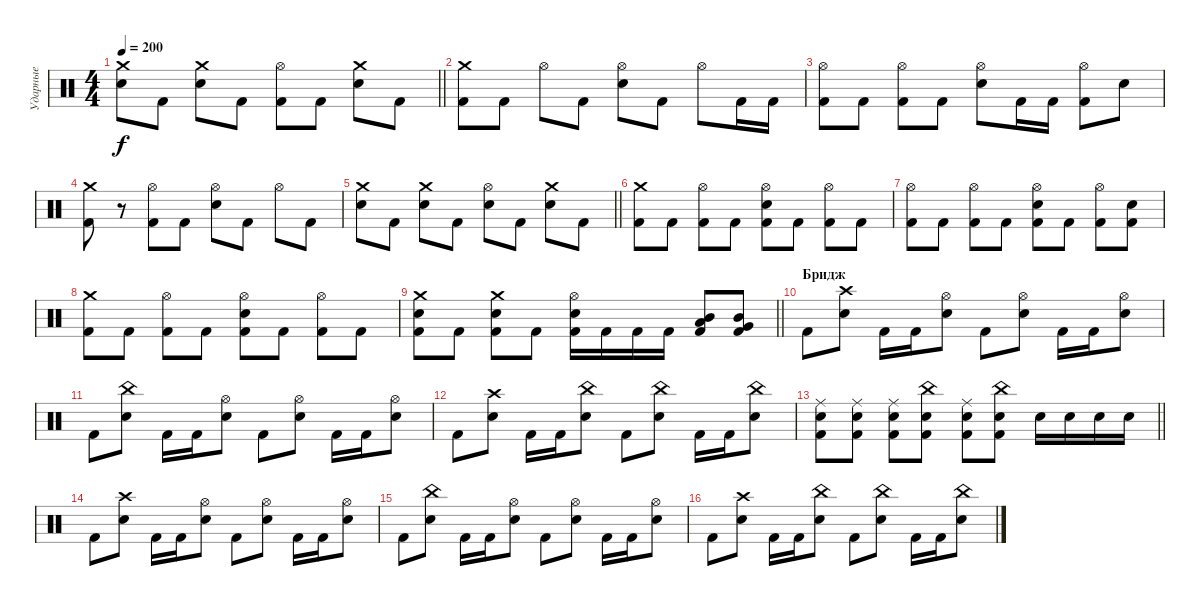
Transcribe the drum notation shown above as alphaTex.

\track ("Ударные" "Ударные") {instrument percussion}
\staff {score}
\articulation defaults
\ts (4 4)
\tempo 200
\clef neutral
\barLineRight lightlight
\ks c
("Crash medium (hit)" "Electric Snare (hit)").8{dy f} "Kick (hit) 2".8 ("Crash medium (hit)" "Electric Snare (hit)").8 "Kick (hit) 2".8 ("Hi-Hat (open)" "Kick (hit) 2").8 "Kick (hit) 2".8 ("Crash medium (hit)" "Electric Snare (hit)").8 "Kick (hit) 2".8 |
("Crash medium (hit)" "Kick (hit) 2").8 "Kick (hit) 2".8 "Hi-Hat (open)".8 "Kick (hit) 2".8 ("Hi-Hat (open)" "Electric Snare (hit)").8 "Kick (hit) 2".8 "Hi-Hat (open)".8 "Kick (hit) 2".16 "Kick (hit) 2".16 |
("Hi-Hat (open)" "Kick (hit) 2").8 "Kick (hit) 2".8 ("Hi-Hat (open)" "Kick (hit) 2").8 "Kick (hit) 2".8 ("Hi-Hat (open)" "Electric Snare (hit)").8 "Kick (hit) 2".16 "Kick (hit) 2".16 ("Hi-Hat (open)" "Kick (hit) 2").8 "Electric Snare (hit)".8 |
("Crash medium (hit)" "Kick (hit) 2").8 r.8 ("Hi-Hat (open)" "Kick (hit) 2").8 "Kick (hit) 2".8 ("Hi-Hat (open)" "Electric Snare (hit)").8 "Kick (hit) 2".8 "Hi-Hat (open)".8 "Kick (hit) 2".8 |
\barLineRight lightlight
("Crash medium (hit)" "Electric Snare (hit)").8 "Kick (hit) 2".8 ("Crash medium (hit)" "Electric Snare (hit)").8 "Kick (hit) 2".8 ("Hi-Hat (open)" "Electric Snare (hit)").8 "Kick (hit) 2".8 ("Crash medium (hit)" "Electric Snare (hit)").8 "Kick (hit) 2".8 |
("Crash medium (hit)" "Kick (hit) 2").8 "Kick (hit) 2".8 ("Hi-Hat (open)" "Kick (hit) 2").8 "Kick (hit) 2".8 ("Hi-Hat (open)" "Electric Snare (hit)" "Kick (hit) 2").8 "Kick (hit) 2".8 ("Hi-Hat (open)" "Kick (hit) 2").8 "Kick (hit) 2".8 |
("Hi-Hat (open)" "Kick (hit) 2").8 "Kick (hit) 2".8 ("Hi-Hat (open)" "Kick (hit) 2").8 "Kick (hit) 2".8 ("Hi-Hat (open)" "Electric Snare (hit)" "Kick (hit) 2").8 "Kick (hit) 2".8 ("Hi-Hat (open)" "Kick (hit) 2").8 ("Electric Snare (hit)" "Kick (hit) 2").8 |
("Crash medium (hit)" "Kick (hit) 2").8 "Kick (hit) 2".8 ("Hi-Hat (open)" "Kick (hit) 2").8 "Kick (hit) 2".8 ("Hi-Hat (open)" "Electric Snare (hit)" "Kick (hit) 2").8 "Kick (hit) 2".8 ("Hi-Hat (open)" "Kick (hit) 2").8 "Kick (hit) 2".8 |
\barLineRight lightlight
("Crash medium (hit)" "Electric Snare (hit)" "Kick (hit) 2").8 "Kick (hit) 2".8 ("Crash medium (hit)" "Electric Snare (hit)" "Kick (hit) 2").8 "Kick (hit) 2".8 ("Hi-Hat (open)" "Electric Snare (hit)" "Kick (hit) 2").16 "Kick (hit) 2".16 "Kick (hit) 2".16 "Kick (hit) 2".16 ("Low Tom (hit)" "Mid Tom (hit)" "Kick (hit) 2").8 ("Mid Tom (hit)" "Very Low Tom (hit)" "Kick (hit) 2").8 |
\section ("" "Бридж")
"Kick (hit) 2".8 ("Electric Snare (hit)" "Crash high (hit)").8 "Kick (hit) 2".16 "Kick (hit) 2".16 ("Electric Snare (hit)" "Hi-Hat (open)").8 "Kick (hit) 2".8 ("Electric Snare (hit)" "Hi-Hat (open)").8 "Kick (hit) 2".16 "Kick (hit) 2".16 ("Electric Snare (hit)" "Hi-Hat (open)").8 |
"Kick (hit) 2".8 ("Electric Snare (hit)" "China (hit)").8 "Kick (hit) 2".16 "Kick (hit) 2".16 ("Electric Snare (hit)" "Hi-Hat (open)").8 "Kick (hit) 2".8 ("Electric Snare (hit)" "Hi-Hat (open)").8 "Kick (hit) 2".16 "Kick (hit) 2".16 ("Electric Snare (hit)" "Hi-Hat (open)").8 |
"Kick (hit) 2".8 ("Electric Snare (hit)" "Crash high (hit)").8 "Kick (hit) 2".16 "Kick (hit) 2".16 ("Electric Snare (hit)" "China (hit)").8 "Kick (hit) 2".8 ("Electric Snare (hit)" "China (hit)").8 "Kick (hit) 2".16 "Kick (hit) 2".16 ("Electric Snare (hit)" "China (hit)").8 |
\barLineRight lightlight
("Kick (hit) 2" "Electric Snare (hit)" "Ride (middle)").8 ("Kick (hit) 2" "Electric Snare (hit)" "Ride (middle)").8 ("Kick (hit) 2" "Electric Snare (hit)" "Ride (middle)").8 ("Kick (hit) 2" "Electric Snare (hit)" "China (hit)").8 ("Kick (hit) 2" "Electric Snare (hit)" "Ride (middle)").8 ("Kick (hit) 2" "Electric Snare (hit)" "China (hit)").8 "Electric Snare (hit)".16 "Electric Snare (hit)".16 "Electric Snare (hit)".16 "Electric Snare (hit)".16 |
"Kick (hit) 2".8 ("Electric Snare (hit)" "Crash high (hit)").8 "Kick (hit) 2".16 "Kick (hit) 2".16 ("Electric Snare (hit)" "Hi-Hat (open)").8 "Kick (hit) 2".8 ("Electric Snare (hit)" "Hi-Hat (open)").8 "Kick (hit) 2".16 "Kick (hit) 2".16 ("Electric Snare (hit)" "Hi-Hat (open)").8 |
"Kick (hit) 2".8 ("Electric Snare (hit)" "China (hit)").8 "Kick (hit) 2".16 "Kick (hit) 2".16 ("Electric Snare (hit)" "Hi-Hat (open)").8 "Kick (hit) 2".8 ("Electric Snare (hit)" "Hi-Hat (open)").8 "Kick (hit) 2".16 "Kick (hit) 2".16 ("Electric Snare (hit)" "Hi-Hat (open)").8 |
"Kick (hit) 2".8 ("Electric Snare (hit)" "Crash high (hit)").8 "Kick (hit) 2".16 "Kick (hit) 2".16 ("Electric Snare (hit)" "China (hit)").8 "Kick (hit) 2".8 ("Electric Snare (hit)" "China (hit)").8 "Kick (hit) 2".16 "Kick (hit) 2".16 ("Electric Snare (hit)" "China (hit)").8
